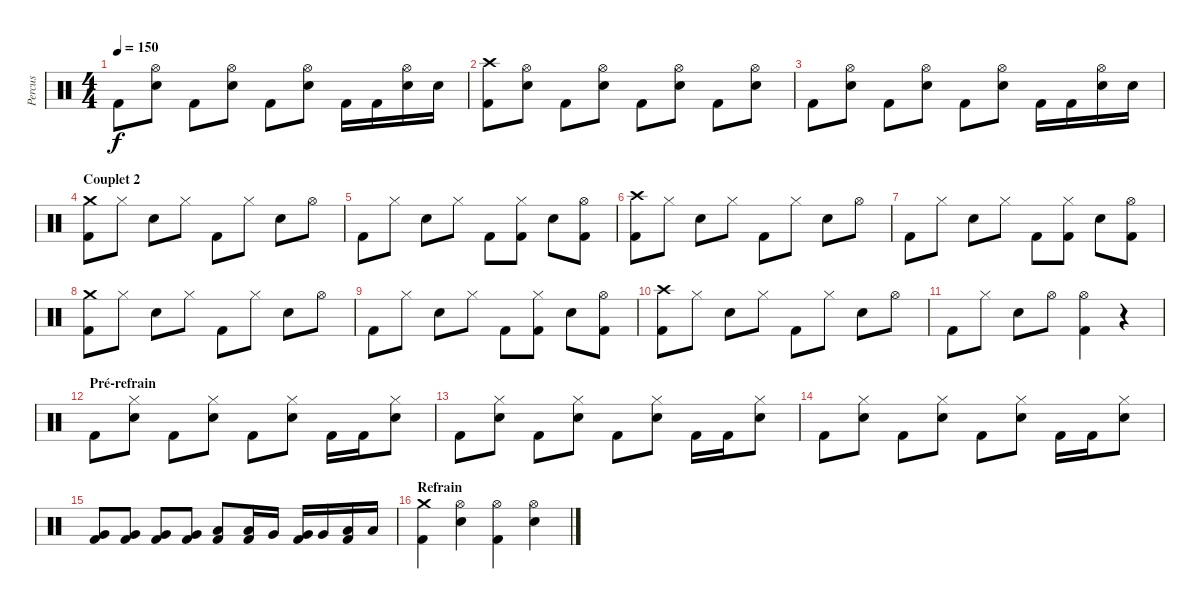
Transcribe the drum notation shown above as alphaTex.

\track ("Percus" "Percus") {instrument percussion}
\staff {score}
\articulation defaults
\ts (4 4)
\tempo 150
\clef neutral
\ks c "Kick (hit) 2".8{dy f}
("Hi-Hat (open)" "Snare (hit) 2").8 "Kick (hit) 2".8 ("Hi-Hat (open)" "Snare (hit) 2").8 "Kick (hit) 2".8 ("Hi-Hat (open)" "Snare (hit) 2").8 "Kick (hit) 2".16 "Kick (hit) 2".16 ("Hi-Hat (open)" "Snare (hit) 2").16 "Snare (hit) 2".16 |
("Crash high (hit)" "Kick (hit) 2").8 ("Hi-Hat (open)" "Snare (hit) 2").8 "Kick (hit) 2".8 ("Hi-Hat (open)" "Snare (hit) 2").8 "Kick (hit) 2".8 ("Hi-Hat (open)" "Snare (hit) 2").8 "Kick (hit) 2".8 ("Hi-Hat (open)" "Snare (hit) 2").8 |
"Kick (hit) 2".8 ("Hi-Hat (open)" "Snare (hit) 2").8 "Kick (hit) 2".8 ("Hi-Hat (open)" "Snare (hit) 2").8 "Kick (hit) 2".8 ("Hi-Hat (open)" "Snare (hit) 2").8 "Kick (hit) 2".16 "Kick (hit) 2".16 ("Hi-Hat (open)" "Snare (hit) 2").16 "Snare (hit) 2".16 |
\section ("" "Couplet 2")
("Crash medium (hit)" "Kick (hit) 2").8 "Hi-Hat (closed)".8 "Snare (hit) 2".8 "Hi-Hat (closed)".8 "Kick (hit) 2".8 "Hi-Hat (closed)".8 "Snare (hit) 2".8 "Hi-Hat (open)".8 |
"Kick (hit) 2".8 "Hi-Hat (closed)".8 "Snare (hit) 2".8 "Hi-Hat (closed)".8 "Kick (hit) 2".8 ("Hi-Hat (closed)" "Kick (hit) 2").8 "Snare (hit) 2".8 ("Hi-Hat (open)" "Kick (hit) 2").8 |
("Crash high (hit)" "Kick (hit) 2").8 "Hi-Hat (closed)".8 "Snare (hit) 2".8 "Hi-Hat (closed)".8 "Kick (hit) 2".8 "Hi-Hat (closed)".8 "Snare (hit) 2".8 "Hi-Hat (open)".8 |
"Kick (hit) 2".8 "Hi-Hat (closed)".8 "Snare (hit) 2".8 "Hi-Hat (closed)".8 "Kick (hit) 2".8 ("Hi-Hat (closed)" "Kick (hit) 2").8 "Snare (hit) 2".8 ("Hi-Hat (open)" "Kick (hit) 2").8 |
("Crash medium (hit)" "Kick (hit) 2").8 "Hi-Hat (closed)".8 "Snare (hit) 2".8 "Hi-Hat (closed)".8 "Kick (hit) 2".8 "Hi-Hat (closed)".8 "Snare (hit) 2".8 "Hi-Hat (open)".8 |
"Kick (hit) 2".8 "Hi-Hat (closed)".8 "Snare (hit) 2".8 "Hi-Hat (closed)".8 "Kick (hit) 2".8 ("Hi-Hat (closed)" "Kick (hit) 2").8 "Snare (hit) 2".8 ("Hi-Hat (open)" "Kick (hit) 2").8 |
("Crash high (hit)" "Kick (hit) 2").8 "Hi-Hat (closed)".8 "Snare (hit) 2".8 "Hi-Hat (closed)".8 "Kick (hit) 2".8 "Hi-Hat (closed)".8 "Snare (hit) 2".8 "Hi-Hat (open)".8 |
"Kick (hit) 2".8 "Hi-Hat (closed)".8 "Snare (hit) 2".8 "Hi-Hat (open)".8 ("Hi-Hat (open)" "Kick (hit) 2").4 r.4 |
\section ("" "Pré-refrain")
"Kick (hit) 2".8 ("Hi-Hat (closed)" "Snare (hit) 2").8 "Kick (hit) 2".8 ("Hi-Hat (closed)" "Snare (hit) 2").8 "Kick (hit) 2".8 ("Hi-Hat (closed)" "Snare (hit) 2").8 "Kick (hit) 2".16 "Kick (hit) 2".16 ("Hi-Hat (closed)" "Snare (hit) 2").8 |
"Kick (hit) 2".8 ("Hi-Hat (closed)" "Snare (hit) 2").8 "Kick (hit) 2".8 ("Hi-Hat (closed)" "Snare (hit) 2").8 "Kick (hit) 2".8 ("Hi-Hat (closed)" "Snare (hit) 2").8 "Kick (hit) 2".16 "Kick (hit) 2".16 ("Hi-Hat (closed)" "Snare (hit) 2").8 |
"Kick (hit) 2".8 ("Hi-Hat (closed)" "Snare (hit) 2").8 "Kick (hit) 2".8 ("Hi-Hat (closed)" "Snare (hit) 2").8 "Kick (hit) 2".8 ("Hi-Hat (closed)" "Snare (hit) 2").8 "Kick (hit) 2".16 "Kick (hit) 2".16 ("Hi-Hat (closed)" "Snare (hit) 2").8 |
("Very Low Tom (hit)" "Kick (hit) 2").8 ("Very Low Tom (hit)" "Kick (hit) 2").8 ("Very Low Tom (hit)" "Kick (hit) 2").8 ("Very Low Tom (hit)" "Kick (hit) 2").8 ("Low Tom (hit)" "Kick (hit) 2").8 ("Low Tom (hit)" "Kick (hit) 2").16 "Very Low Tom (hit)".16 ("Very Low Tom (hit)" "Kick (hit) 2").16 "Very Low Tom (hit)".16 ("Low Floor Tom (hit)" "Kick (hit) 2").16 "Low Floor Tom (hit)".16 |
\section ("" "Refrain")
("Crash medium (hit)" "Kick (hit) 2").4 ("Hi-Hat (open)" "Snare (hit) 2").4 ("Hi-Hat (open)" "Kick (hit) 2").4 ("Hi-Hat (open)" "Snare (hit) 2").4
